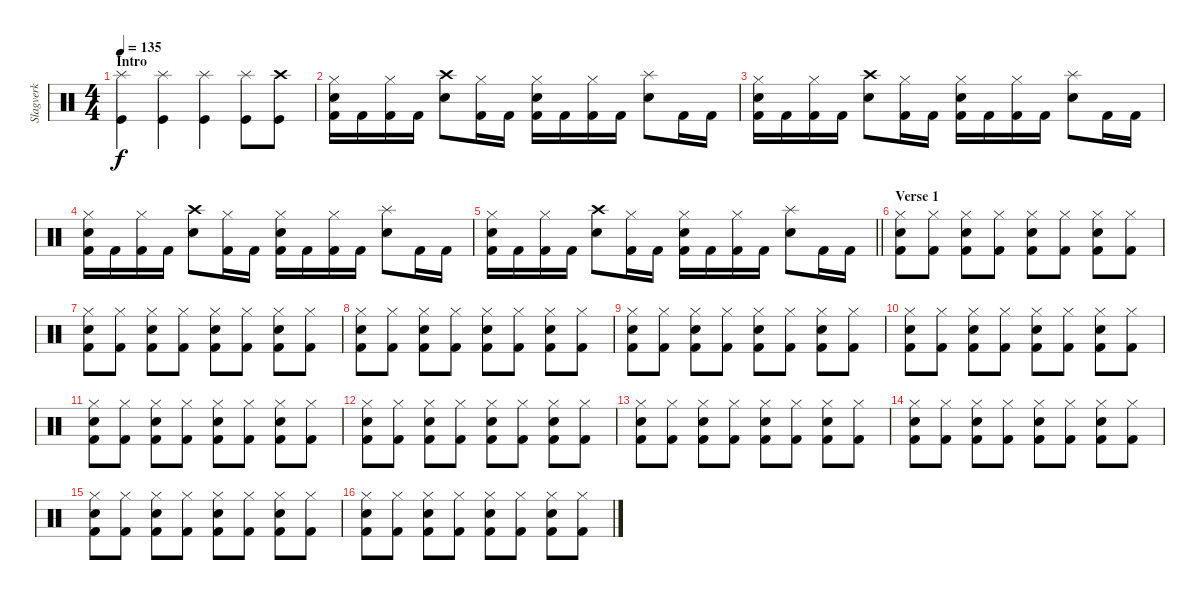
\track ("Slagverk" "Slagverk") {instrument percussion}
\staff {score}
\articulation defaults
\ts (4 4)
\section ("" "Intro")
\tempo 135
\clef neutral
\ks c
("Kick (hit)" "Splash (hit)").4{dy f} ("Kick (hit)" "Splash (hit)").4 ("Kick (hit)" "Splash (hit)").4 ("Kick (hit)" "Splash (hit)").8 ("Kick (hit)" "Crash high (hit)").8 |
("Hi-Hat (closed)" "Snare (hit) 2" "Kick (hit) 2").16 "Kick (hit) 2".16 ("Hi-Hat (closed)" "Kick (hit) 2").16 "Kick (hit) 2".16 ("Crash high (hit)" "Snare (hit) 2").8 ("Hi-Hat (closed)" "Kick (hit) 2").16 "Kick (hit) 2".16 ("Hi-Hat (closed)" "Snare (hit) 2" "Kick (hit) 2").16 "Kick (hit) 2".16 ("Hi-Hat (closed)" "Kick (hit) 2").16 "Kick (hit) 2".16 ("Splash (hit)" "Snare (hit) 2").8 "Kick (hit) 2".16 "Kick (hit) 2".16 |
("Hi-Hat (closed)" "Snare (hit) 2" "Kick (hit) 2").16 "Kick (hit) 2".16 ("Hi-Hat (closed)" "Kick (hit) 2").16 "Kick (hit) 2".16 ("Crash high (hit)" "Snare (hit) 2").8 ("Hi-Hat (closed)" "Kick (hit) 2").16 "Kick (hit) 2".16 ("Hi-Hat (closed)" "Snare (hit) 2" "Kick (hit) 2").16 "Kick (hit) 2".16 ("Hi-Hat (closed)" "Kick (hit) 2").16 "Kick (hit) 2".16 ("Splash (hit)" "Snare (hit) 2").8 "Kick (hit) 2".16 "Kick (hit) 2".16 |
("Hi-Hat (closed)" "Snare (hit) 2" "Kick (hit) 2").16 "Kick (hit) 2".16 ("Hi-Hat (closed)" "Kick (hit) 2").16 "Kick (hit) 2".16 ("Crash high (hit)" "Snare (hit) 2").8 ("Hi-Hat (closed)" "Kick (hit) 2").16 "Kick (hit) 2".16 ("Hi-Hat (closed)" "Snare (hit) 2" "Kick (hit) 2").16 "Kick (hit) 2".16 ("Hi-Hat (closed)" "Kick (hit) 2").16 "Kick (hit) 2".16 ("Splash (hit)" "Snare (hit) 2").8 "Kick (hit) 2".16 "Kick (hit) 2".16 |
\barLineRight lightlight
("Hi-Hat (closed)" "Snare (hit) 2" "Kick (hit) 2").16 "Kick (hit) 2".16 ("Hi-Hat (closed)" "Kick (hit) 2").16 "Kick (hit) 2".16 ("Crash high (hit)" "Snare (hit) 2").8 ("Hi-Hat (closed)" "Kick (hit) 2").16 "Kick (hit) 2".16 ("Hi-Hat (closed)" "Snare (hit) 2" "Kick (hit) 2").16 "Kick (hit) 2".16 ("Hi-Hat (closed)" "Kick (hit) 2").16 "Kick (hit) 2".16 ("Splash (hit)" "Snare (hit) 2").8 "Kick (hit) 2".16 "Kick (hit) 2".16 |
\section ("" "Verse 1")
("Hi-Hat (closed)" "Snare (hit) 2" "Kick (hit) 2").8 ("Hi-Hat (closed)" "Kick (hit) 2").8 ("Hi-Hat (closed)" "Snare (hit) 2" "Kick (hit) 2").8 ("Hi-Hat (closed)" "Kick (hit) 2").8 ("Hi-Hat (closed)" "Snare (hit) 2" "Kick (hit) 2").8 ("Hi-Hat (closed)" "Kick (hit) 2").8 ("Hi-Hat (closed)" "Snare (hit) 2" "Kick (hit) 2").8 ("Hi-Hat (closed)" "Kick (hit) 2").8 |
("Hi-Hat (closed)" "Snare (hit) 2" "Kick (hit) 2").8 ("Hi-Hat (closed)" "Kick (hit) 2").8 ("Hi-Hat (closed)" "Snare (hit) 2" "Kick (hit) 2").8 ("Hi-Hat (closed)" "Kick (hit) 2").8 ("Hi-Hat (closed)" "Snare (hit) 2" "Kick (hit) 2").8 ("Hi-Hat (closed)" "Kick (hit) 2").8 ("Hi-Hat (closed)" "Snare (hit) 2" "Kick (hit) 2").8 ("Hi-Hat (closed)" "Kick (hit) 2").8 |
("Hi-Hat (closed)" "Snare (hit) 2" "Kick (hit) 2").8 ("Hi-Hat (closed)" "Kick (hit) 2").8 ("Hi-Hat (closed)" "Snare (hit) 2" "Kick (hit) 2").8 ("Hi-Hat (closed)" "Kick (hit) 2").8 ("Hi-Hat (closed)" "Snare (hit) 2" "Kick (hit) 2").8 ("Hi-Hat (closed)" "Kick (hit) 2").8 ("Hi-Hat (closed)" "Snare (hit) 2" "Kick (hit) 2").8 ("Hi-Hat (closed)" "Kick (hit) 2").8 |
("Hi-Hat (closed)" "Snare (hit) 2" "Kick (hit) 2").8 ("Hi-Hat (closed)" "Kick (hit) 2").8 ("Hi-Hat (closed)" "Snare (hit) 2" "Kick (hit) 2").8 ("Hi-Hat (closed)" "Kick (hit) 2").8 ("Hi-Hat (closed)" "Snare (hit) 2" "Kick (hit) 2").8 ("Hi-Hat (closed)" "Kick (hit) 2").8 ("Hi-Hat (closed)" "Snare (hit) 2" "Kick (hit) 2").8 ("Hi-Hat (closed)" "Kick (hit) 2").8 |
("Hi-Hat (closed)" "Snare (hit) 2" "Kick (hit) 2").8 ("Hi-Hat (closed)" "Kick (hit) 2").8 ("Hi-Hat (closed)" "Snare (hit) 2" "Kick (hit) 2").8 ("Hi-Hat (closed)" "Kick (hit) 2").8 ("Hi-Hat (closed)" "Snare (hit) 2" "Kick (hit) 2").8 ("Hi-Hat (closed)" "Kick (hit) 2").8 ("Hi-Hat (closed)" "Snare (hit) 2" "Kick (hit) 2").8 ("Hi-Hat (closed)" "Kick (hit) 2").8 |
("Hi-Hat (closed)" "Snare (hit) 2" "Kick (hit) 2").8 ("Hi-Hat (closed)" "Kick (hit) 2").8 ("Hi-Hat (closed)" "Snare (hit) 2" "Kick (hit) 2").8 ("Hi-Hat (closed)" "Kick (hit) 2").8 ("Hi-Hat (closed)" "Snare (hit) 2" "Kick (hit) 2").8 ("Hi-Hat (closed)" "Kick (hit) 2").8 ("Hi-Hat (closed)" "Snare (hit) 2" "Kick (hit) 2").8 ("Hi-Hat (closed)" "Kick (hit) 2").8 |
("Hi-Hat (closed)" "Snare (hit) 2" "Kick (hit) 2").8 ("Hi-Hat (closed)" "Kick (hit) 2").8 ("Hi-Hat (closed)" "Snare (hit) 2" "Kick (hit) 2").8 ("Hi-Hat (closed)" "Kick (hit) 2").8 ("Hi-Hat (closed)" "Snare (hit) 2" "Kick (hit) 2").8 ("Hi-Hat (closed)" "Kick (hit) 2").8 ("Hi-Hat (closed)" "Snare (hit) 2" "Kick (hit) 2").8 ("Hi-Hat (closed)" "Kick (hit) 2").8 |
("Hi-Hat (closed)" "Snare (hit) 2" "Kick (hit) 2").8 ("Hi-Hat (closed)" "Kick (hit) 2").8 ("Hi-Hat (closed)" "Snare (hit) 2" "Kick (hit) 2").8 ("Hi-Hat (closed)" "Kick (hit) 2").8 ("Hi-Hat (closed)" "Snare (hit) 2" "Kick (hit) 2").8 ("Hi-Hat (closed)" "Kick (hit) 2").8 ("Hi-Hat (closed)" "Snare (hit) 2" "Kick (hit) 2").8 ("Hi-Hat (closed)" "Kick (hit) 2").8 |
("Hi-Hat (closed)" "Snare (hit) 2" "Kick (hit) 2").8 ("Hi-Hat (closed)" "Kick (hit) 2").8 ("Hi-Hat (closed)" "Snare (hit) 2" "Kick (hit) 2").8 ("Hi-Hat (closed)" "Kick (hit) 2").8 ("Hi-Hat (closed)" "Snare (hit) 2" "Kick (hit) 2").8 ("Hi-Hat (closed)" "Kick (hit) 2").8 ("Hi-Hat (closed)" "Snare (hit) 2" "Kick (hit) 2").8 ("Hi-Hat (closed)" "Kick (hit) 2").8 |
("Hi-Hat (closed)" "Snare (hit) 2" "Kick (hit) 2").8 ("Hi-Hat (closed)" "Kick (hit) 2").8 ("Hi-Hat (closed)" "Snare (hit) 2" "Kick (hit) 2").8 ("Hi-Hat (closed)" "Kick (hit) 2").8 ("Hi-Hat (closed)" "Snare (hit) 2" "Kick (hit) 2").8 ("Hi-Hat (closed)" "Kick (hit) 2").8 ("Hi-Hat (closed)" "Snare (hit) 2" "Kick (hit) 2").8 ("Hi-Hat (closed)" "Kick (hit) 2").8 |
("Hi-Hat (closed)" "Snare (hit) 2" "Kick (hit) 2").8 ("Hi-Hat (closed)" "Kick (hit) 2").8 ("Hi-Hat (closed)" "Snare (hit) 2" "Kick (hit) 2").8 ("Hi-Hat (closed)" "Kick (hit) 2").8 ("Hi-Hat (closed)" "Snare (hit) 2" "Kick (hit) 2").8 ("Hi-Hat (closed)" "Kick (hit) 2").8 ("Hi-Hat (closed)" "Snare (hit) 2" "Kick (hit) 2").8 ("Hi-Hat (closed)" "Kick (hit) 2").8
